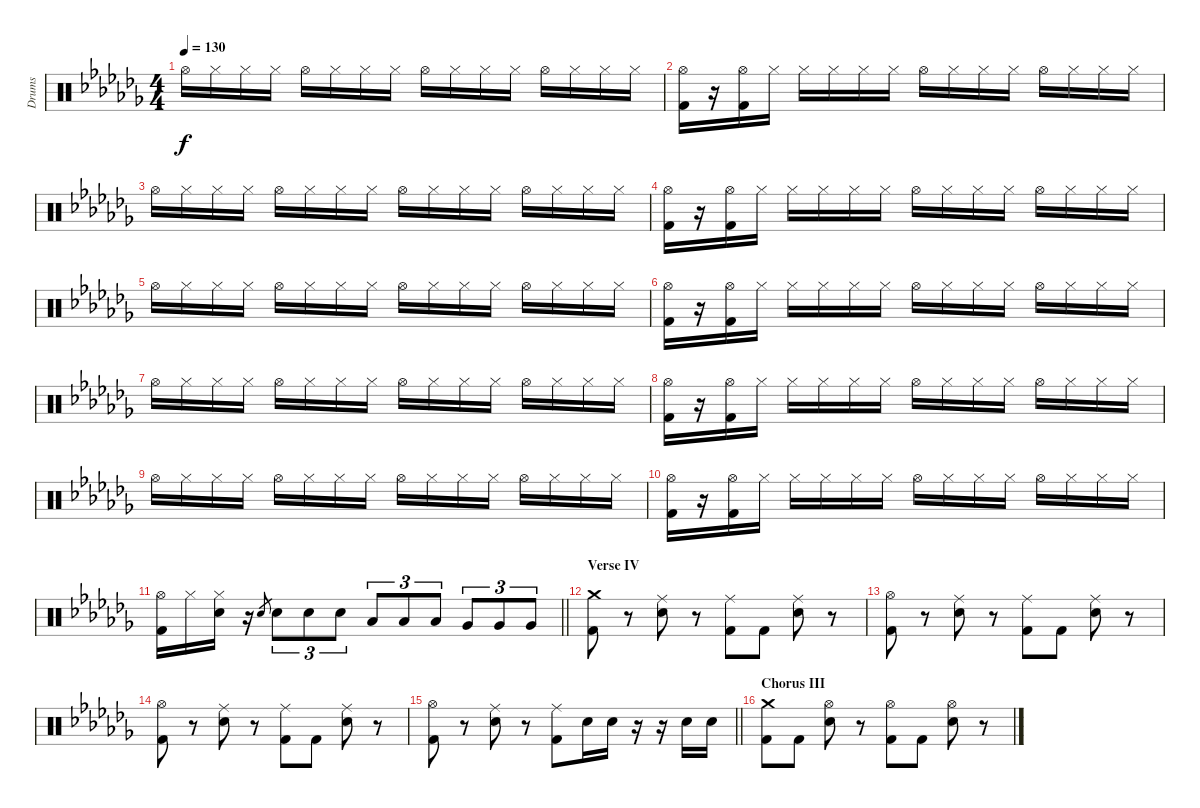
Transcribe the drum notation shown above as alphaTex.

\track ("Drums" "Drums") {instrument percussion}
\staff {score}
\articulation defaults
\ts (4 4)
\tempo 130
\clef neutral
\ks cb "Hi-Hat (open)".16{dy f} "Hi-Hat (closed)".16 "Hi-Hat (closed)".16 "Hi-Hat (closed)".16 "Hi-Hat (open)".16 "Hi-Hat (closed)".16 "Hi-Hat (closed)".16 "Hi-Hat (closed)".16 "Hi-Hat (open)".16 "Hi-Hat (closed)".16 "Hi-Hat (closed)".16 "Hi-Hat (closed)".16 "Hi-Hat (open)".16 "Hi-Hat (closed)".16 "Hi-Hat (closed)".16 "Hi-Hat (closed)".16
|
("Hi-Hat (open)" "Kick (hit) 2").16 r.16 ("Hi-Hat (open)" "Kick (hit) 2").16 "Hi-Hat (closed)".16 "Hi-Hat (closed)".16 "Hi-Hat (closed)".16 "Hi-Hat (closed)".16 "Hi-Hat (closed)".16 "Hi-Hat (open)".16 "Hi-Hat (closed)".16 "Hi-Hat (closed)".16 "Hi-Hat (closed)".16 "Hi-Hat (open)".16 "Hi-Hat (closed)".16 "Hi-Hat (closed)".16 "Hi-Hat (closed)".16 |
"Hi-Hat (open)".16 "Hi-Hat (closed)".16 "Hi-Hat (closed)".16 "Hi-Hat (closed)".16 "Hi-Hat (open)".16 "Hi-Hat (closed)".16 "Hi-Hat (closed)".16 "Hi-Hat (closed)".16 "Hi-Hat (open)".16 "Hi-Hat (closed)".16 "Hi-Hat (closed)".16 "Hi-Hat (closed)".16 "Hi-Hat (open)".16 "Hi-Hat (closed)".16 "Hi-Hat (closed)".16 "Hi-Hat (closed)".16 |
("Hi-Hat (open)" "Kick (hit) 2").16 r.16 ("Hi-Hat (open)" "Kick (hit) 2").16 "Hi-Hat (closed)".16 "Hi-Hat (closed)".16 "Hi-Hat (closed)".16 "Hi-Hat (closed)".16 "Hi-Hat (closed)".16 "Hi-Hat (open)".16 "Hi-Hat (closed)".16 "Hi-Hat (closed)".16 "Hi-Hat (closed)".16 "Hi-Hat (open)".16 "Hi-Hat (closed)".16 "Hi-Hat (closed)".16 "Hi-Hat (closed)".16 |
"Hi-Hat (open)".16 "Hi-Hat (closed)".16 "Hi-Hat (closed)".16 "Hi-Hat (closed)".16 "Hi-Hat (open)".16 "Hi-Hat (closed)".16 "Hi-Hat (closed)".16 "Hi-Hat (closed)".16 "Hi-Hat (open)".16 "Hi-Hat (closed)".16 "Hi-Hat (closed)".16 "Hi-Hat (closed)".16 "Hi-Hat (open)".16 "Hi-Hat (closed)".16 "Hi-Hat (closed)".16 "Hi-Hat (closed)".16 |
("Hi-Hat (open)" "Kick (hit) 2").16 r.16 ("Hi-Hat (open)" "Kick (hit) 2").16 "Hi-Hat (closed)".16 "Hi-Hat (closed)".16 "Hi-Hat (closed)".16 "Hi-Hat (closed)".16 "Hi-Hat (closed)".16 "Hi-Hat (open)".16 "Hi-Hat (closed)".16 "Hi-Hat (closed)".16 "Hi-Hat (closed)".16 "Hi-Hat (open)".16 "Hi-Hat (closed)".16 "Hi-Hat (closed)".16 "Hi-Hat (closed)".16 |
"Hi-Hat (open)".16 "Hi-Hat (closed)".16 "Hi-Hat (closed)".16 "Hi-Hat (closed)".16 "Hi-Hat (open)".16 "Hi-Hat (closed)".16 "Hi-Hat (closed)".16 "Hi-Hat (closed)".16 "Hi-Hat (open)".16 "Hi-Hat (closed)".16 "Hi-Hat (closed)".16 "Hi-Hat (closed)".16 "Hi-Hat (open)".16 "Hi-Hat (closed)".16 "Hi-Hat (closed)".16 "Hi-Hat (closed)".16 |
("Hi-Hat (open)" "Kick (hit) 2").16 r.16 ("Hi-Hat (open)" "Kick (hit) 2").16 "Hi-Hat (closed)".16 "Hi-Hat (closed)".16 "Hi-Hat (closed)".16 "Hi-Hat (closed)".16 "Hi-Hat (closed)".16 "Hi-Hat (open)".16 "Hi-Hat (closed)".16 "Hi-Hat (closed)".16 "Hi-Hat (closed)".16 "Hi-Hat (open)".16 "Hi-Hat (closed)".16 "Hi-Hat (closed)".16 "Hi-Hat (closed)".16 |
"Hi-Hat (open)".16 "Hi-Hat (closed)".16 "Hi-Hat (closed)".16 "Hi-Hat (closed)".16 "Hi-Hat (open)".16 "Hi-Hat (closed)".16 "Hi-Hat (closed)".16 "Hi-Hat (closed)".16 "Hi-Hat (open)".16 "Hi-Hat (closed)".16 "Hi-Hat (closed)".16 "Hi-Hat (closed)".16 "Hi-Hat (open)".16 "Hi-Hat (closed)".16 "Hi-Hat (closed)".16 "Hi-Hat (closed)".16 |
("Hi-Hat (open)" "Kick (hit) 2").16 r.16 ("Hi-Hat (open)" "Kick (hit) 2").16 "Hi-Hat (closed)".16 "Hi-Hat (closed)".16 "Hi-Hat (closed)".16 "Hi-Hat (closed)".16 "Hi-Hat (closed)".16 "Hi-Hat (open)".16 "Hi-Hat (closed)".16 "Hi-Hat (closed)".16 "Hi-Hat (closed)".16 "Hi-Hat (open)".16 "Hi-Hat (closed)".16 "Hi-Hat (closed)".16 "Hi-Hat (closed)".16 |
\barLineRight lightlight
("Hi-Hat (open)" "Kick (hit) 2").16 "Hi-Hat (closed)".16 ("Hi-Hat (closed)" "Snare (hit) 2").16 r.16 "Snare (hit) 2".8{gr} "Snare (hit) 2".8{tu (3 2)} "Snare (hit) 2".8{tu (3 2)} "Snare (hit) 2".8{tu (3 2)} "Low Tom (hit)".8{tu (3 2)} "Low Tom (hit)".8{tu (3 2)} "Low Tom (hit)".8{tu (3 2)} "Very Low Tom (hit)".8{tu (3 2)} "Very Low Tom (hit)".8{tu (3 2)} "Very Low Tom (hit)".8{tu (3 2)} |
\section ("" "Verse IV")
("Crash medium (hit)" "Kick (hit) 2").8 r.8 ("Ride (middle)" "Snare (hit) 2").8 r.8 ("Ride (middle)" "Kick (hit) 2").8 "Kick (hit) 2".8 ("Ride (middle)" "Snare (hit) 2").8 r.8 |
("Hi-Hat (open)" "Kick (hit) 2").8 r.8 ("Ride (middle)" "Snare (hit) 2").8 r.8 ("Ride (middle)" "Kick (hit) 2").8 "Kick (hit) 2".8 ("Ride (middle)" "Snare (hit) 2").8 r.8 |
("Hi-Hat (open)" "Kick (hit) 2").8 r.8 ("Ride (middle)" "Snare (hit) 2").8 r.8 ("Ride (middle)" "Kick (hit) 2").8 "Kick (hit) 2".8 ("Ride (middle)" "Snare (hit) 2").8 r.8 |
\barLineRight lightlight
("Hi-Hat (open)" "Kick (hit) 2").8 r.8 ("Ride (middle)" "Snare (hit) 2").8 r.8 ("Ride (middle)" "Kick (hit) 2").8 "Snare (hit) 2".16 "Snare (hit) 2".16 r.16 r.16 "Snare (hit) 2".16 "Snare (hit) 2".16 |
\section ("" "Chorus III")
("Crash medium (hit)" "Kick (hit) 2").8 "Kick (hit) 2".8 ("Hi-Hat (open)" "Snare (hit) 2").8 r.8 ("Hi-Hat (open)" "Kick (hit) 2").8 "Kick (hit) 2".8 ("Hi-Hat (open)" "Snare (hit) 2").8 r.8
